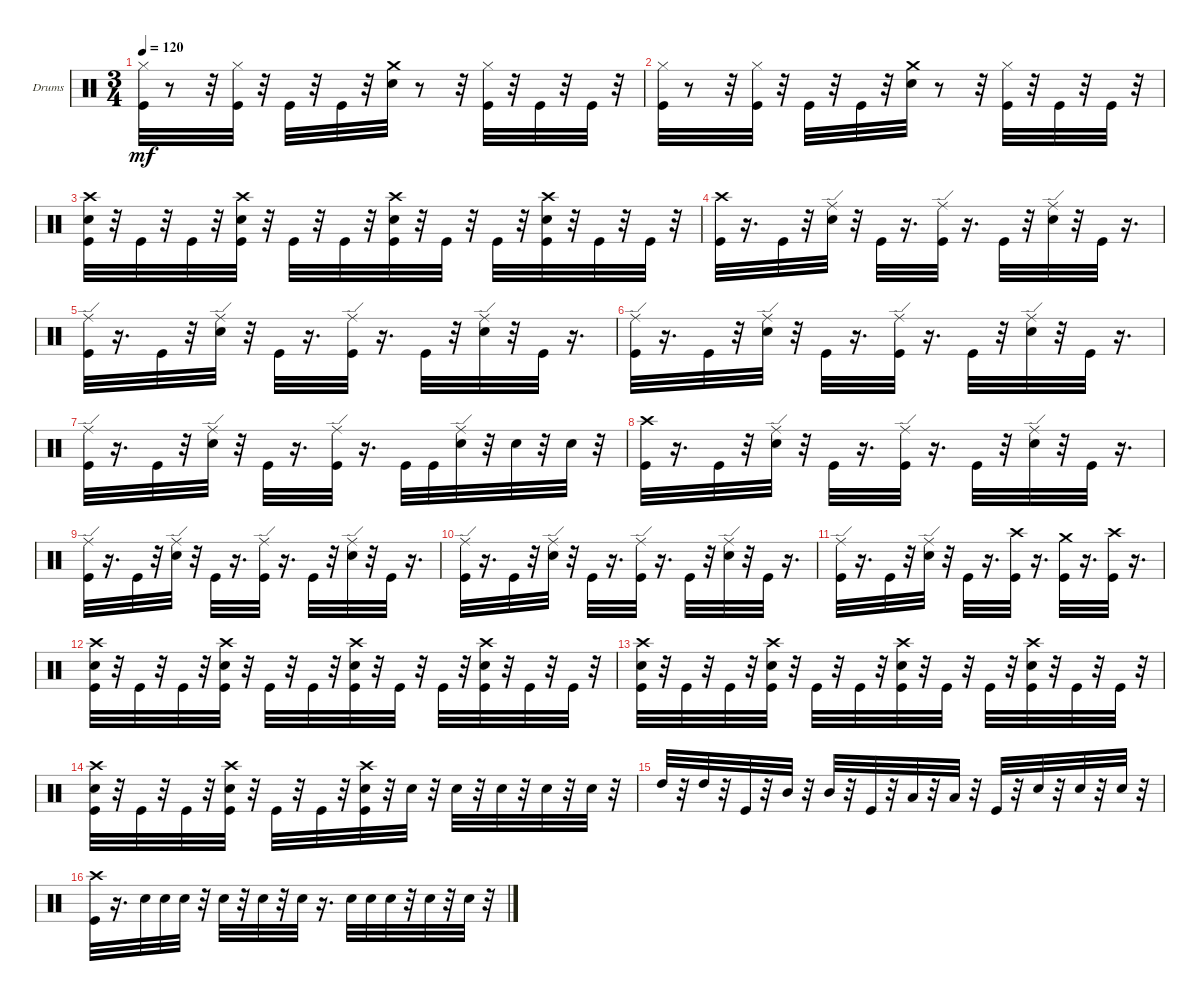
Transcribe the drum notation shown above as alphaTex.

\bracketExtendMode groupsimilarinstruments
\firstSystemTrackNameOrientation horizontal
\otherSystemsTrackNameOrientation horizontal
\track ("" "Drums") {instrument percussion}
\staff {score}
\articulation defaults
\ts (3 4)
\tempo 120
\clef neutral
\ks c
("Hi-Hat (closed)" "Kick (hit)").32{dy mf} r.8 r.32 ("Hi-Hat (closed)" "Kick (hit)").32 r.32 "Kick (hit)".32 r.32 "Kick (hit)".32 r.32 ("Crash medium (hit)" "Snare (hit) 2").32 r.8 r.32 ("Hi-Hat (closed)" "Kick (hit)").32 r.32 "Kick (hit)".32 r.32 "Kick (hit)".32 r.32 |
("Hi-Hat (closed)" "Kick (hit)").32 r.8 r.32 ("Hi-Hat (closed)" "Kick (hit)").32 r.32 "Kick (hit)".32 r.32 "Kick (hit)".32 r.32 ("Crash medium (hit)" "Snare (hit) 2").32 r.8 r.32 ("Hi-Hat (closed)" "Kick (hit)").32 r.32 "Kick (hit)".32 r.32 "Kick (hit)".32 r.32 |
("Kick (hit)" "Snare (hit) 2" "Crash high (hit)").32 r.32 "Kick (hit)".32 r.32 "Kick (hit)".32 r.32 ("Kick (hit)" "Snare (hit) 2" "Crash high (hit)").32 r.32 "Kick (hit)".32 r.32 "Kick (hit)".32 r.32 ("Kick (hit)" "Snare (hit) 2" "Crash high (hit)").32 r.32 "Kick (hit)".32 r.32 "Kick (hit)".32 r.32 ("Kick (hit)" "Snare (hit) 2" "Crash high (hit)").32 r.32 "Kick (hit)".32 r.32 "Kick (hit)".32 r.32 |
("Crash high (hit)" "Kick (hit)").32 r.16{d} "Kick (hit)".32 r.32 ("Snare (hit) 2" "Ride (edge)").32 r.32 "Kick (hit)".32 r.16{d} ("Kick (hit)" "Ride (edge)").32 r.16{d} "Kick (hit)".32 r.32 ("Snare (hit) 2" "Ride (edge)").32 r.32 "Kick (hit)".32 r.16{d} |
("Ride (edge)" "Kick (hit)").32 r.16{d} "Kick (hit)".32 r.32 ("Snare (hit) 2" "Ride (edge)").32 r.32 "Kick (hit)".32 r.16{d} ("Kick (hit)" "Ride (edge)").32 r.16{d} "Kick (hit)".32 r.32 ("Snare (hit) 2" "Ride (edge)").32 r.32 "Kick (hit)".32 r.16{d} |
("Ride (edge)" "Kick (hit)").32 r.16{d} "Kick (hit)".32 r.32 ("Snare (hit) 2" "Ride (edge)").32 r.32 "Kick (hit)".32 r.16{d} ("Kick (hit)" "Ride (edge)").32 r.16{d} "Kick (hit)".32 r.32 ("Snare (hit) 2" "Ride (edge)").32 r.32 "Kick (hit)".32 r.16{d} |
("Ride (edge)" "Kick (hit)").32 r.16{d} "Kick (hit)".32 r.32 ("Snare (hit) 2" "Ride (edge)").32 r.32 "Kick (hit)".32 r.16{d} ("Kick (hit)" "Ride (edge)").32 r.16{d} "Kick (hit)".32 "Kick (hit)".32 ("Snare (hit) 2" "Ride (edge)").32 r.32 "Snare (hit) 2".32 r.32 "Snare (hit) 2".32 r.32 |
("Crash high (hit)" "Kick (hit)").32 r.16{d} "Kick (hit)".32 r.32 ("Snare (hit) 2" "Ride (edge)").32 r.32 "Kick (hit)".32 r.16{d} ("Kick (hit)" "Ride (edge)").32 r.16{d} "Kick (hit)".32 r.32 ("Snare (hit) 2" "Ride (edge)").32 r.32 "Kick (hit)".32 r.16{d} |
("Ride (edge)" "Kick (hit)").32 r.16{d} "Kick (hit)".32 r.32 ("Snare (hit) 2" "Ride (edge)").32 r.32 "Kick (hit)".32 r.16{d} ("Kick (hit)" "Ride (edge)").32 r.16{d} "Kick (hit)".32 r.32 ("Snare (hit) 2" "Ride (edge)").32 r.32 "Kick (hit)".32 r.16{d} |
("Ride (edge)" "Kick (hit)").32 r.16{d} "Kick (hit)".32 r.32 ("Snare (hit) 2" "Ride (edge)").32 r.32 "Kick (hit)".32 r.16{d} ("Kick (hit)" "Ride (edge)").32 r.16{d} "Kick (hit)".32 r.32 ("Snare (hit) 2" "Ride (edge)").32 r.32 "Kick (hit)".32 r.16{d} |
("Ride (edge)" "Kick (hit)").32 r.16{d} "Kick (hit)".32 r.32 ("Snare (hit) 2" "Ride (edge)").32 r.32 "Kick (hit)".32 r.16{d} ("Crash high (hit)" "Kick (hit)").32 r.16{d} ("Crash medium (hit)" "Kick (hit)").32 r.16{d} ("Crash high (hit)" "Kick (hit)").32 r.16{d} |
("Kick (hit)" "Snare (hit) 2" "Crash high (hit)").32 r.32 "Kick (hit)".32 r.32 "Kick (hit)".32 r.32 ("Kick (hit)" "Snare (hit) 2" "Crash high (hit)").32 r.32 "Kick (hit)".32 r.32 "Kick (hit)".32 r.32 ("Kick (hit)" "Snare (hit) 2" "Crash high (hit)").32 r.32 "Kick (hit)".32 r.32 "Kick (hit)".32 r.32 ("Kick (hit)" "Snare (hit) 2" "Crash high (hit)").32 r.32 "Kick (hit)".32 r.32 "Kick (hit)".32 r.32 |
("Kick (hit)" "Snare (hit) 2" "Crash high (hit)").32 r.32 "Kick (hit)".32 r.32 "Kick (hit)".32 r.32 ("Kick (hit)" "Snare (hit) 2" "Crash high (hit)").32 r.32 "Kick (hit)".32 r.32 "Kick (hit)".32 r.32 ("Kick (hit)" "Snare (hit) 2" "Crash high (hit)").32 r.32 "Kick (hit)".32 r.32 "Kick (hit)".32 r.32 ("Kick (hit)" "Snare (hit) 2" "Crash high (hit)").32 r.32 "Kick (hit)".32 r.32 "Kick (hit)".32 r.32 |
("Kick (hit)" "Snare (hit) 2" "Crash high (hit)").32 r.32 "Kick (hit)".32 r.32 "Kick (hit)".32 r.32 ("Kick (hit)" "Snare (hit) 2" "Crash high (hit)").32 r.32 "Kick (hit)".32 r.32 "Kick (hit)".32 r.32 ("Kick (hit)" "Snare (hit) 2" "Crash high (hit)").32 r.32 "Snare (hit) 2".32 r.32 "Snare (hit) 2".32 r.32 "Snare (hit) 2".32 r.32 "Snare (hit) 2".32 r.32 "Snare (hit) 2".32 r.32 |
"High Tom (hit)".32 r.32 "High Tom (hit)".32 r.32 "Kick (hit)".32 r.32 "Mid Tom (hit)".32 r.32 "Mid Tom (hit)".32 r.32 "Kick (hit)".32 r.32 "Low Tom (hit)".32 r.32 "Low Tom (hit)".32 r.32 "Kick (hit)".32 r.32 "Snare (hit) 2".32 r.32 "Snare (hit) 2".32 r.32 "Snare (hit) 2".32 r.32 |
("Crash high (hit)" "Kick (hit)").32 r.16{d} "Snare (hit) 2".32 "Snare (hit) 2".32 "Snare (hit) 2".32 r.32 "Snare (hit) 2".32 r.32 "Snare (hit) 2".32 r.32 "Snare (hit) 2".32 r.16{d} "Snare (hit) 2".32 "Snare (hit) 2".32 "Snare (hit) 2".32 r.32 "Snare (hit) 2".32 r.32 "Snare (hit) 2".32 r.32
